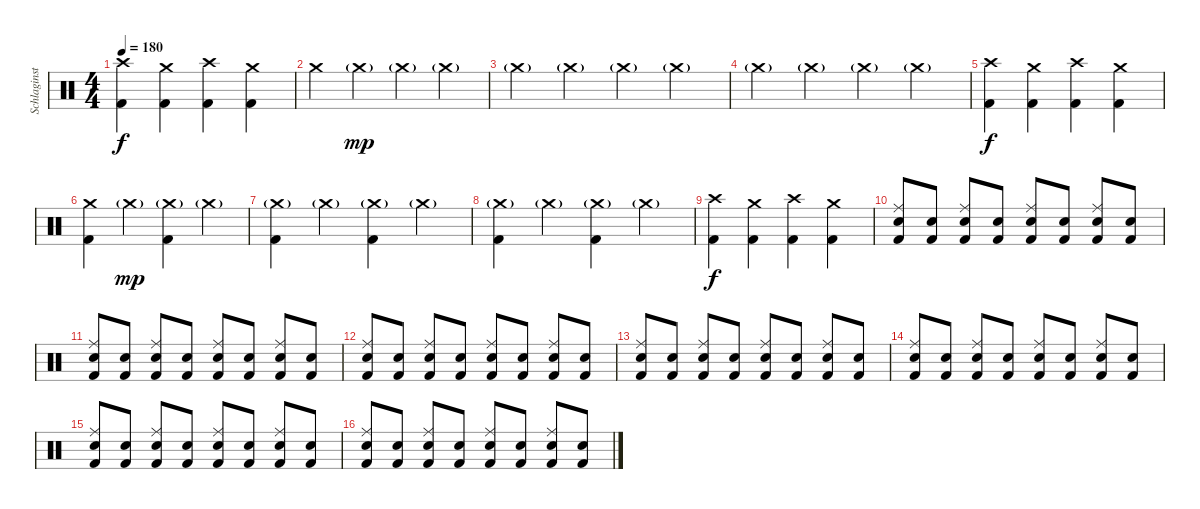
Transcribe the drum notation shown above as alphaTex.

\track ("Schlaginstrumente - Auswahl" "Schlaginst") {instrument percussion}
\staff {score}
\articulation defaults
\ts (4 4)
\tempo 180
\clef neutral
\ks c
("Crash high (hit)" "Kick (hit) 2").4{dy f} ("Crash medium (hit)" "Kick (hit) 2").4 ("Crash high (hit)" "Kick (hit) 2").4 ("Crash medium (hit)" "Kick (hit) 2").4 |
"Crash medium (hit)".4 "Crash medium (hit)"{g}.4{dy mp} "Crash medium (hit)"{g}.4 "Crash medium (hit)"{g}.4 |
"Crash medium (hit)"{g}.4 "Crash medium (hit)"{g}.4 "Crash medium (hit)"{g}.4 "Crash medium (hit)"{g}.4 |
"Crash medium (hit)"{g}.4 "Crash medium (hit)"{g}.4 "Crash medium (hit)"{g}.4 "Crash medium (hit)"{g}.4 |
("Crash high (hit)" "Kick (hit) 2").4{dy f} ("Crash medium (hit)" "Kick (hit) 2").4 ("Crash high (hit)" "Kick (hit) 2").4 ("Crash medium (hit)" "Kick (hit) 2").4 |
("Crash medium (hit)" "Kick (hit) 2").4 "Crash medium (hit)"{g}.4{dy mp} ("Crash medium (hit)"{g} "Kick (hit) 2").4 "Crash medium (hit)"{g}.4 |
("Crash medium (hit)"{g} "Kick (hit) 2").4 "Crash medium (hit)"{g}.4 ("Crash medium (hit)"{g} "Kick (hit) 2").4 "Crash medium (hit)"{g}.4 |
("Crash medium (hit)"{g} "Kick (hit) 2").4 "Crash medium (hit)"{g}.4 ("Crash medium (hit)"{g} "Kick (hit) 2").4 "Crash medium (hit)"{g}.4 |
("Crash high (hit)" "Kick (hit) 2").4{dy f} ("Crash medium (hit)" "Kick (hit) 2").4 ("Crash high (hit)" "Kick (hit) 2").4 ("Crash medium (hit)" "Kick (hit) 2").4 |
("Ride (middle)" "Snare (hit) 2" "Kick (hit) 2").8 ("Snare (hit) 2" "Kick (hit) 2").8 ("Ride (middle)" "Snare (hit) 2" "Kick (hit) 2").8 ("Snare (hit) 2" "Kick (hit) 2").8 ("Ride (middle)" "Snare (hit) 2" "Kick (hit) 2").8 ("Snare (hit) 2" "Kick (hit) 2").8 ("Ride (middle)" "Snare (hit) 2" "Kick (hit) 2").8 ("Snare (hit) 2" "Kick (hit) 2").8 |
("Ride (middle)" "Snare (hit) 2" "Kick (hit) 2").8 ("Snare (hit) 2" "Kick (hit) 2").8 ("Ride (middle)" "Snare (hit) 2" "Kick (hit) 2").8 ("Snare (hit) 2" "Kick (hit) 2").8 ("Ride (middle)" "Snare (hit) 2" "Kick (hit) 2").8 ("Snare (hit) 2" "Kick (hit) 2").8 ("Ride (middle)" "Snare (hit) 2" "Kick (hit) 2").8 ("Snare (hit) 2" "Kick (hit) 2").8 |
("Ride (middle)" "Snare (hit) 2" "Kick (hit) 2").8 ("Snare (hit) 2" "Kick (hit) 2").8 ("Ride (middle)" "Snare (hit) 2" "Kick (hit) 2").8 ("Snare (hit) 2" "Kick (hit) 2").8 ("Ride (middle)" "Snare (hit) 2" "Kick (hit) 2").8 ("Snare (hit) 2" "Kick (hit) 2").8 ("Ride (middle)" "Snare (hit) 2" "Kick (hit) 2").8 ("Snare (hit) 2" "Kick (hit) 2").8 |
("Ride (middle)" "Snare (hit) 2" "Kick (hit) 2").8 ("Snare (hit) 2" "Kick (hit) 2").8 ("Ride (middle)" "Snare (hit) 2" "Kick (hit) 2").8 ("Snare (hit) 2" "Kick (hit) 2").8 ("Ride (middle)" "Snare (hit) 2" "Kick (hit) 2").8 ("Snare (hit) 2" "Kick (hit) 2").8 ("Ride (middle)" "Snare (hit) 2" "Kick (hit) 2").8 ("Snare (hit) 2" "Kick (hit) 2").8 |
("Ride (middle)" "Snare (hit) 2" "Kick (hit) 2").8 ("Snare (hit) 2" "Kick (hit) 2").8 ("Ride (middle)" "Snare (hit) 2" "Kick (hit) 2").8 ("Snare (hit) 2" "Kick (hit) 2").8 ("Ride (middle)" "Snare (hit) 2" "Kick (hit) 2").8 ("Snare (hit) 2" "Kick (hit) 2").8 ("Ride (middle)" "Snare (hit) 2" "Kick (hit) 2").8 ("Snare (hit) 2" "Kick (hit) 2").8 |
("Ride (middle)" "Snare (hit) 2" "Kick (hit) 2").8 ("Snare (hit) 2" "Kick (hit) 2").8 ("Ride (middle)" "Snare (hit) 2" "Kick (hit) 2").8 ("Snare (hit) 2" "Kick (hit) 2").8 ("Ride (middle)" "Snare (hit) 2" "Kick (hit) 2").8 ("Snare (hit) 2" "Kick (hit) 2").8 ("Ride (middle)" "Snare (hit) 2" "Kick (hit) 2").8 ("Snare (hit) 2" "Kick (hit) 2").8 |
("Ride (middle)" "Snare (hit) 2" "Kick (hit) 2").8 ("Snare (hit) 2" "Kick (hit) 2").8 ("Ride (middle)" "Snare (hit) 2" "Kick (hit) 2").8 ("Snare (hit) 2" "Kick (hit) 2").8 ("Ride (middle)" "Snare (hit) 2" "Kick (hit) 2").8 ("Snare (hit) 2" "Kick (hit) 2").8 ("Ride (middle)" "Snare (hit) 2" "Kick (hit) 2").8 ("Snare (hit) 2" "Kick (hit) 2").8
